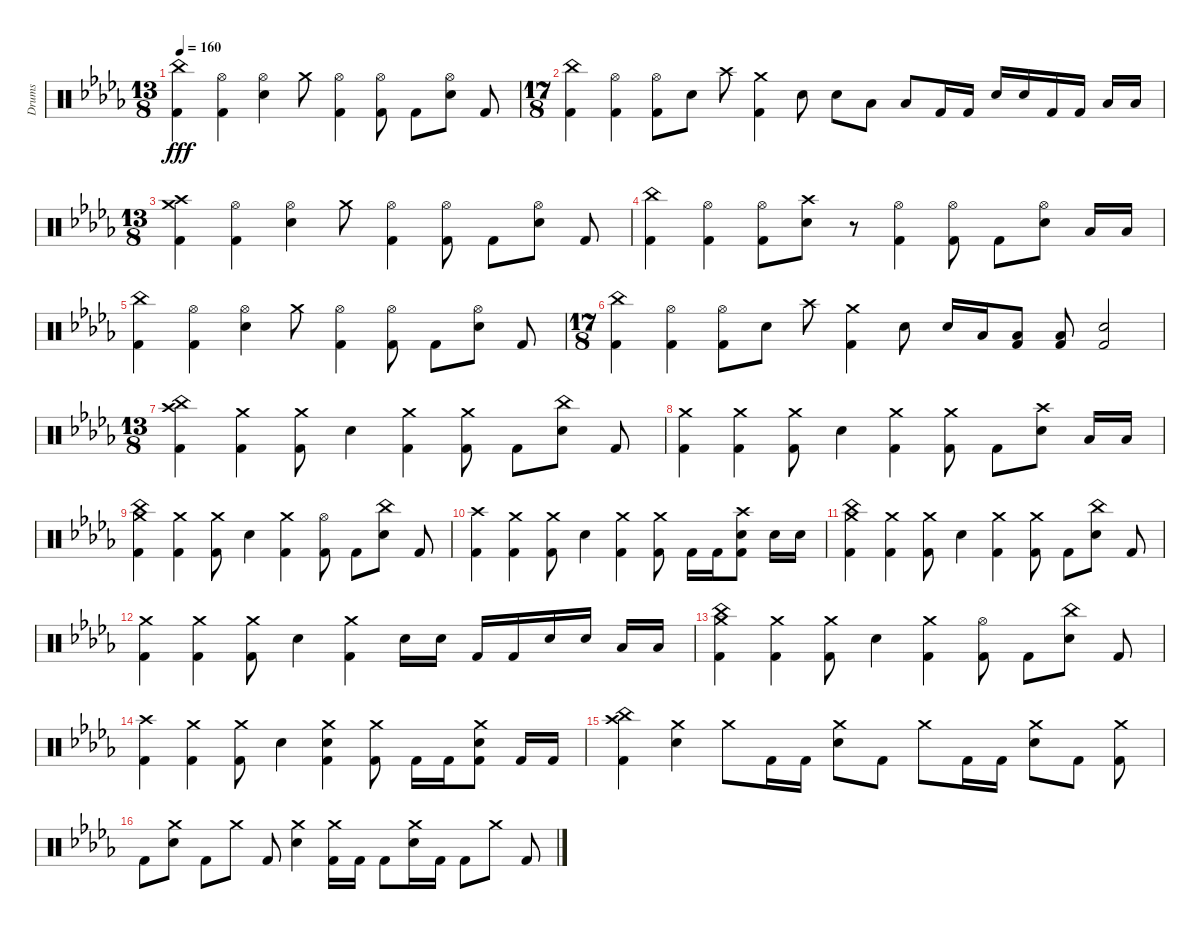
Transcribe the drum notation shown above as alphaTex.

\track ("Drums" "Drums") {instrument percussion}
\staff {score}
\articulation defaults
\ts (13 8)
\tempo 160
\clef neutral
\ks bbminor
("China (hit)" "Kick (hit) 2").4{dy fff} ("Hi-Hat (open)" "Kick (hit) 2").4 ("Hi-Hat (open)" "Snare (hit) 2").4 "Crash medium (hit)".8 ("Hi-Hat (open)" "Kick (hit) 2").4 ("Hi-Hat (open)" "Kick (hit) 2").8 "Kick (hit) 2".8 ("Hi-Hat (open)" "Snare (hit) 2").8 "Kick (hit) 2".8 |
\ts (17 8)
("China (hit)" "Kick (hit) 2").4 ("Hi-Hat (open)" "Kick (hit) 2").4 ("Hi-Hat (open)" "Kick (hit) 2").8 "Snare (hit) 2".8 "Crash high (hit)".8 ("Crash medium (hit)" "Kick (hit) 2").4 "Snare (hit) 2".8 "Snare (hit) 2".8 "Low Floor Tom (hit)".8 "Low Floor Tom (hit)".8 "Kick (hit) 2".16 "Kick (hit) 2".16 "Snare (hit) 2".16 "Snare (hit) 2".16 "Kick (hit) 2".16 "Kick (hit) 2".16 "Low Floor Tom (hit)".16 "Low Floor Tom (hit)".16 |
\ts (13 8)
("Crash high (hit)" "Crash medium (hit)" "Kick (hit) 2").4 ("Hi-Hat (open)" "Kick (hit) 2").4 ("Hi-Hat (open)" "Snare (hit) 2").4 "Crash medium (hit)".8 ("Hi-Hat (open)" "Kick (hit) 2").4 ("Hi-Hat (open)" "Kick (hit) 2").8 "Kick (hit) 2".8 ("Hi-Hat (open)" "Snare (hit) 2").8 "Kick (hit) 2".8 |
("China (hit)" "Kick (hit) 2").4 ("Hi-Hat (open)" "Kick (hit) 2").4 ("Hi-Hat (open)" "Kick (hit) 2").8 ("Crash high (hit)" "Snare (hit) 2").8 r.8 ("Hi-Hat (open)" "Kick (hit) 2").4 ("Hi-Hat (open)" "Kick (hit) 2").8 "Kick (hit) 2".8 ("Hi-Hat (open)" "Snare (hit) 2").8 "Low Floor Tom (hit)".16 "Low Floor Tom (hit)".16 |
("China (hit)" "Kick (hit) 2").4 ("Hi-Hat (open)" "Kick (hit) 2").4 ("Hi-Hat (open)" "Snare (hit) 2").4 "Crash medium (hit)".8 ("Hi-Hat (open)" "Kick (hit) 2").4 ("Hi-Hat (open)" "Kick (hit) 2").8 "Kick (hit) 2".8 ("Hi-Hat (open)" "Snare (hit) 2").8 "Kick (hit) 2".8 |
\ts (17 8)
("China (hit)" "Kick (hit) 2").4 ("Hi-Hat (open)" "Kick (hit) 2").4 ("Hi-Hat (open)" "Kick (hit) 2").8 "Snare (hit) 2".8 "Crash high (hit)".8 ("Crash medium (hit)" "Kick (hit) 2").4 "Snare (hit) 2".8 "Snare (hit) 2".16 "Low Floor Tom (hit)".16 ("Low Floor Tom (hit)" "Kick (hit) 2").8 ("Low Floor Tom (hit)" "Kick (hit) 2").8 ("Snare (hit) 2" "Kick (hit) 2").2 |
\ts (13 8)
("Crash high (hit)" "China (hit)" "Kick (hit) 2").4 ("Crash medium (hit)" "Kick (hit) 2").4 ("Crash medium (hit)" "Kick (hit) 2").8 "Snare (hit) 2".4 ("Crash medium (hit)" "Kick (hit) 2").4 ("Crash medium (hit)" "Kick (hit) 2").8 "Kick (hit) 2".8 ("China (hit)" "Snare (hit) 2").8 "Kick (hit) 2".8 |
("Crash medium (hit)" "Kick (hit) 2").4 ("Crash medium (hit)" "Kick (hit) 2").4 ("Crash medium (hit)" "Kick (hit) 2").8 "Snare (hit) 2".4 ("Crash medium (hit)" "Kick (hit) 2").4 ("Crash medium (hit)" "Kick (hit) 2").8 "Kick (hit) 2".8 ("Crash high (hit)" "Snare (hit) 2").8 "Low Floor Tom (hit)".16 "Low Floor Tom (hit)".16 |
("Crash medium (hit)" "China (hit)" "Kick (hit) 2").4 ("Crash medium (hit)" "Kick (hit) 2").4 ("Crash medium (hit)" "Kick (hit) 2").8 "Snare (hit) 2".4 ("Crash medium (hit)" "Kick (hit) 2").4 ("Hi-Hat (open)" "Kick (hit) 2").8 "Kick (hit) 2".8 ("China (hit)" "Snare (hit) 2").8 "Kick (hit) 2".8 |
("Crash high (hit)" "Kick (hit) 2").4 ("Crash medium (hit)" "Kick (hit) 2").4 ("Crash medium (hit)" "Kick (hit) 2").8 "Snare (hit) 2".4 ("Crash medium (hit)" "Kick (hit) 2").4 ("Crash medium (hit)" "Kick (hit) 2").8 "Kick (hit) 2".16 "Kick (hit) 2".16 ("Crash high (hit)" "Snare (hit) 2" "Kick (hit) 2").8 "Snare (hit) 2".16 "Snare (hit) 2".16 |
("Crash medium (hit)" "China (hit)" "Kick (hit) 2").4 ("Crash medium (hit)" "Kick (hit) 2").4 ("Crash medium (hit)" "Kick (hit) 2").8 "Snare (hit) 2".4 ("Crash medium (hit)" "Kick (hit) 2").4 ("Crash medium (hit)" "Kick (hit) 2").8 "Kick (hit) 2".8 ("China (hit)" "Snare (hit) 2").8 "Kick (hit) 2".8 |
("Crash medium (hit)" "Kick (hit) 2").4 ("Crash medium (hit)" "Kick (hit) 2").4 ("Crash medium (hit)" "Kick (hit) 2").8 "Snare (hit) 2".4 ("Crash medium (hit)" "Kick (hit) 2").4 "Snare (hit) 2".16 "Snare (hit) 2".16 "Kick (hit) 2".16 "Kick (hit) 2".16 "Snare (hit) 2".16 "Snare (hit) 2".16 "Low Floor Tom (hit)".16 "Low Floor Tom (hit)".16 |
("Crash medium (hit)" "China (hit)" "Kick (hit) 2").4 ("Crash medium (hit)" "Kick (hit) 2").4 ("Crash medium (hit)" "Kick (hit) 2").8 "Snare (hit) 2".4 ("Crash medium (hit)" "Kick (hit) 2").4 ("Hi-Hat (open)" "Kick (hit) 2").8 "Kick (hit) 2".8 ("China (hit)" "Snare (hit) 2").8 "Kick (hit) 2".8 |
("Crash high (hit)" "Kick (hit) 2").4 ("Crash medium (hit)" "Kick (hit) 2").4 ("Crash medium (hit)" "Kick (hit) 2").8 "Snare (hit) 2".4 ("Crash medium (hit)" "Snare (hit) 2" "Kick (hit) 2").4 ("Crash medium (hit)" "Kick (hit) 2").8 "Kick (hit) 2".16 "Kick (hit) 2".16 ("Crash medium (hit)" "Snare (hit) 2" "Kick (hit) 2").8 "Kick (hit) 2".16 "Kick (hit) 2".16 |
("Crash high (hit)" "China (hit)" "Kick (hit) 2").4 ("Crash medium (hit)" "Snare (hit) 2").4 "Crash medium (hit)".8 "Kick (hit) 2".16 "Kick (hit) 2".16 ("Crash medium (hit)" "Snare (hit) 2").8 "Kick (hit) 2".8 "Crash medium (hit)".8 "Kick (hit) 2".16 "Kick (hit) 2".16 ("Crash medium (hit)" "Snare (hit) 2").8 "Kick (hit) 2".8 ("Crash medium (hit)" "Kick (hit) 2").8 |
"Kick (hit) 2".8 ("Crash medium (hit)" "Snare (hit) 2").8 "Kick (hit) 2".8 "Crash medium (hit)".8 "Kick (hit) 2".8 ("Crash medium (hit)" "Snare (hit) 2").4 ("Crash medium (hit)" "Kick (hit) 2").16 "Kick (hit) 2".16 "Kick (hit) 2".8 ("Crash medium (hit)" "Snare (hit) 2").16 "Kick (hit) 2".16 "Kick (hit) 2".8 "Crash medium (hit)".8 "Kick (hit) 2".8
